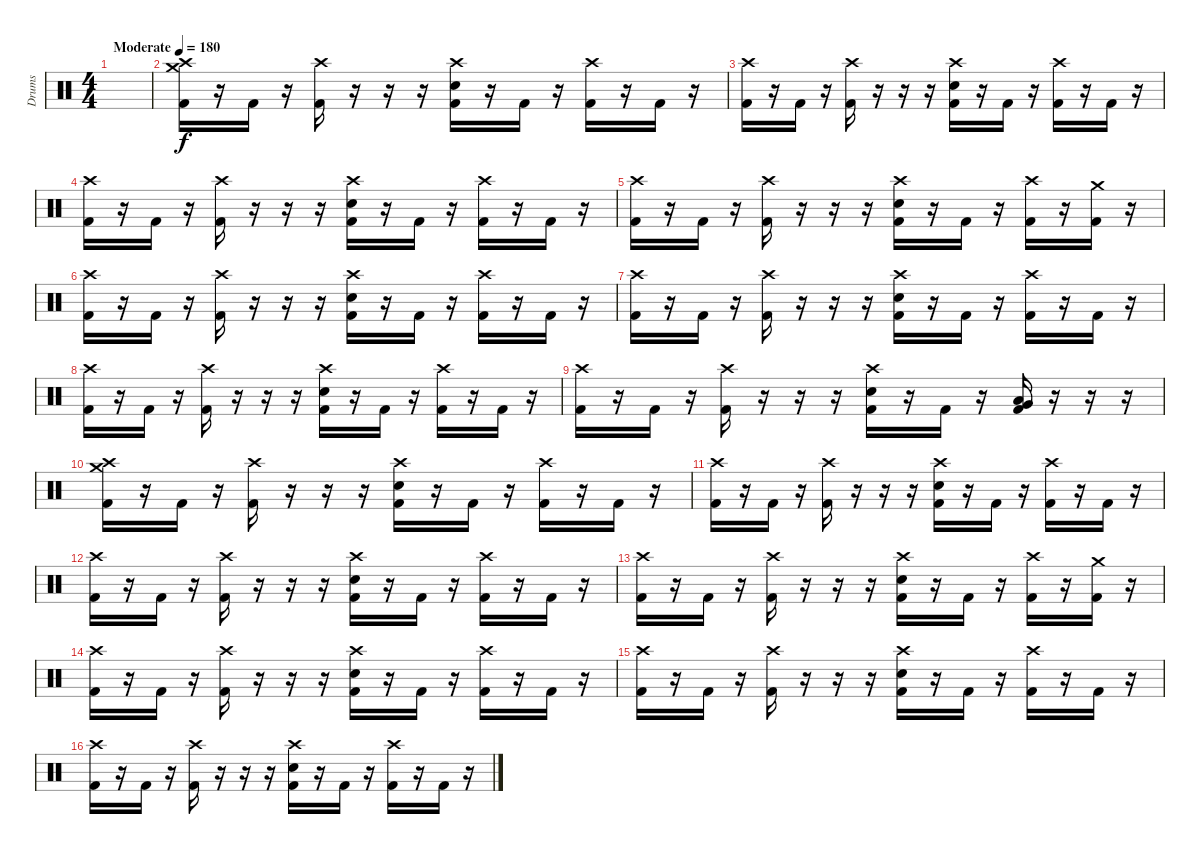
\track ("Drums" "Drums") {instrument percussion}
\staff {score}
\articulation defaults
\ts (4 4)
\tempo (180 "Moderate")
\clef neutral
\ks c
|
("Crash high (hit)" "Crash medium (hit)" "Kick (hit) 2").16 r.16 "Kick (hit) 2".16 r.16 ("Crash high (hit)" "Kick (hit) 2").16 r.16 r.16 r.16 ("Crash high (hit)" "Electric Snare (hit)" "Kick (hit) 2").16 r.16 "Kick (hit) 2".16 r.16 ("Crash high (hit)" "Kick (hit) 2").16 r.16 "Kick (hit) 2".16 r.16 |
("Crash high (hit)" "Kick (hit) 2").16 r.16 "Kick (hit) 2".16 r.16 ("Crash high (hit)" "Kick (hit) 2").16 r.16 r.16 r.16 ("Crash high (hit)" "Electric Snare (hit)" "Kick (hit) 2").16 r.16 "Kick (hit) 2".16 r.16 ("Crash high (hit)" "Kick (hit) 2").16 r.16 "Kick (hit) 2".16 r.16 |
("Crash high (hit)" "Kick (hit) 2").16 r.16 "Kick (hit) 2".16 r.16 ("Crash high (hit)" "Kick (hit) 2").16 r.16 r.16 r.16 ("Crash high (hit)" "Electric Snare (hit)" "Kick (hit) 2").16 r.16 "Kick (hit) 2".16 r.16 ("Crash high (hit)" "Kick (hit) 2").16 r.16 "Kick (hit) 2".16 r.16 |
("Crash high (hit)" "Kick (hit) 2").16 r.16 "Kick (hit) 2".16 r.16 ("Crash high (hit)" "Kick (hit) 2").16 r.16 r.16 r.16 ("Crash high (hit)" "Electric Snare (hit)" "Kick (hit) 2").16 r.16 "Kick (hit) 2".16 r.16 ("Crash high (hit)" "Kick (hit) 2").16 r.16 ("Crash medium (hit)" "Kick (hit) 2").16 r.16 |
("Crash high (hit)" "Kick (hit) 2").16 r.16 "Kick (hit) 2".16 r.16 ("Crash high (hit)" "Kick (hit) 2").16 r.16 r.16 r.16 ("Crash high (hit)" "Electric Snare (hit)" "Kick (hit) 2").16 r.16 "Kick (hit) 2".16 r.16 ("Crash high (hit)" "Kick (hit) 2").16 r.16 "Kick (hit) 2".16 r.16 |
("Crash high (hit)" "Kick (hit) 2").16 r.16 "Kick (hit) 2".16 r.16 ("Crash high (hit)" "Kick (hit) 2").16 r.16 r.16 r.16 ("Crash high (hit)" "Electric Snare (hit)" "Kick (hit) 2").16 r.16 "Kick (hit) 2".16 r.16 ("Crash high (hit)" "Kick (hit) 2").16 r.16 "Kick (hit) 2".16 r.16 |
("Crash high (hit)" "Kick (hit) 2").16 r.16 "Kick (hit) 2".16 r.16 ("Crash high (hit)" "Kick (hit) 2").16 r.16 r.16 r.16 ("Crash high (hit)" "Electric Snare (hit)" "Kick (hit) 2").16 r.16 "Kick (hit) 2".16 r.16 ("Crash high (hit)" "Kick (hit) 2").16 r.16 "Kick (hit) 2".16 r.16 |
("Crash high (hit)" "Kick (hit) 2").16 r.16 "Kick (hit) 2".16 r.16 ("Crash high (hit)" "Kick (hit) 2").16 r.16 r.16 r.16 ("Crash high (hit)" "Electric Snare (hit)" "Kick (hit) 2").16 r.16 "Kick (hit) 2".16 r.16 ("Low Tom (hit)" "Very Low Tom (hit)" "Kick (hit) 2").16 r.16 r.16 r.16 |
("Crash high (hit)" "Crash medium (hit)" "Kick (hit) 2").16 r.16 "Kick (hit) 2".16 r.16 ("Crash high (hit)" "Kick (hit) 2").16 r.16 r.16 r.16 ("Crash high (hit)" "Electric Snare (hit)" "Kick (hit) 2").16 r.16 "Kick (hit) 2".16 r.16 ("Crash high (hit)" "Kick (hit) 2").16 r.16 "Kick (hit) 2".16 r.16 |
("Crash high (hit)" "Kick (hit) 2").16 r.16 "Kick (hit) 2".16 r.16 ("Crash high (hit)" "Kick (hit) 2").16 r.16 r.16 r.16 ("Crash high (hit)" "Electric Snare (hit)" "Kick (hit) 2").16 r.16 "Kick (hit) 2".16 r.16 ("Crash high (hit)" "Kick (hit) 2").16 r.16 "Kick (hit) 2".16 r.16 |
("Crash high (hit)" "Kick (hit) 2").16 r.16 "Kick (hit) 2".16 r.16 ("Crash high (hit)" "Kick (hit) 2").16 r.16 r.16 r.16 ("Crash high (hit)" "Electric Snare (hit)" "Kick (hit) 2").16 r.16 "Kick (hit) 2".16 r.16 ("Crash high (hit)" "Kick (hit) 2").16 r.16 "Kick (hit) 2".16 r.16 |
("Crash high (hit)" "Kick (hit) 2").16 r.16 "Kick (hit) 2".16 r.16 ("Crash high (hit)" "Kick (hit) 2").16 r.16 r.16 r.16 ("Crash high (hit)" "Electric Snare (hit)" "Kick (hit) 2").16 r.16 "Kick (hit) 2".16 r.16 ("Crash high (hit)" "Kick (hit) 2").16 r.16 ("Crash medium (hit)" "Kick (hit) 2").16 r.16 |
("Crash high (hit)" "Kick (hit) 2").16 r.16 "Kick (hit) 2".16 r.16 ("Crash high (hit)" "Kick (hit) 2").16 r.16 r.16 r.16 ("Crash high (hit)" "Electric Snare (hit)" "Kick (hit) 2").16 r.16 "Kick (hit) 2".16 r.16 ("Crash high (hit)" "Kick (hit) 2").16 r.16 "Kick (hit) 2".16 r.16 |
("Crash high (hit)" "Kick (hit) 2").16 r.16 "Kick (hit) 2".16 r.16 ("Crash high (hit)" "Kick (hit) 2").16 r.16 r.16 r.16 ("Crash high (hit)" "Electric Snare (hit)" "Kick (hit) 2").16 r.16 "Kick (hit) 2".16 r.16 ("Crash high (hit)" "Kick (hit) 2").16 r.16 "Kick (hit) 2".16 r.16 |
("Crash high (hit)" "Kick (hit) 2").16 r.16 "Kick (hit) 2".16 r.16 ("Crash high (hit)" "Kick (hit) 2").16 r.16 r.16 r.16 ("Crash high (hit)" "Electric Snare (hit)" "Kick (hit) 2").16 r.16 "Kick (hit) 2".16 r.16 ("Crash high (hit)" "Kick (hit) 2").16 r.16 "Kick (hit) 2".16 r.16
